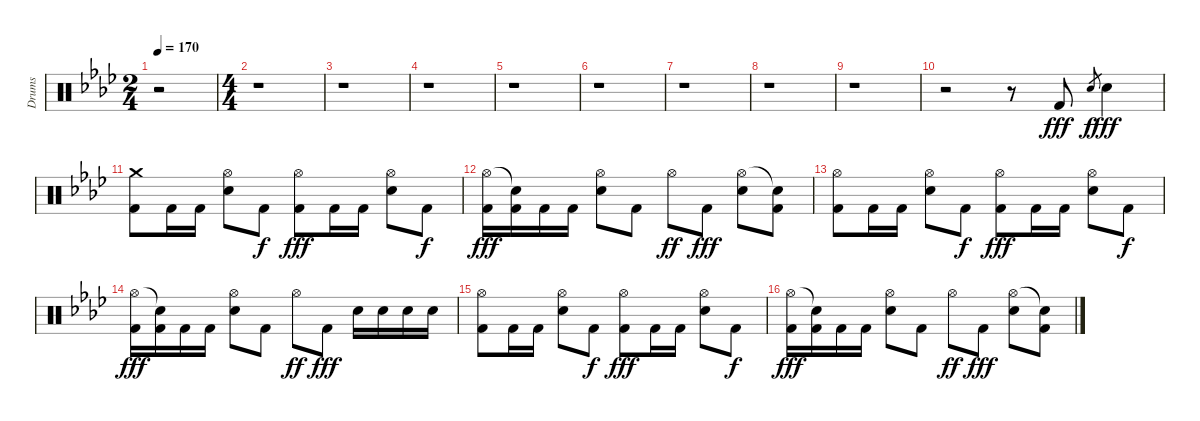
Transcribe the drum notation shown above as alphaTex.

\track ("Drums" "Drums") {instrument percussion}
\staff {score}
\articulation defaults
\ts (2 4)
\tempo 170
\clef neutral
\ks fminor
r.2{dy fff} |
\ts (4 4)
r.1 |
r.1 |
r.1 |
r.1 |
r.1 |
r.1 |
r.1 |
r.1 |
r.2 r.8 "Kick (hit) 2".8 "Snare (hit) 2".8{gr dy f} "Snare (hit) 2".4{dy fff} |
("Crash medium (hit)" "Kick (hit) 2").8 "Kick (hit) 2".16 "Kick (hit) 2".16 ("Hi-Hat (open)" "Snare (hit) 2").8 "Kick (hit) 2".8{dy f} ("Hi-Hat (open)" "Kick (hit) 2").8{dy fff} "Kick (hit) 2".16 "Kick (hit) 2".16 ("Hi-Hat (open)" "Snare (hit) 2").8 "Kick (hit) 2".8{dy f} |
("Hi-Hat (open)" "Kick (hit) 2").16{dy fff} ("Snare (hit)"{t} "Kick (hit) 2").16 "Kick (hit) 2".16 "Kick (hit) 2".16 ("Hi-Hat (open)" "Snare (hit) 2").8 "Kick (hit) 2".8 "Hi-Hat (open)".8{dy ff} "Kick (hit) 2".8{dy fff} ("Hi-Hat (open)" "Snare (hit) 2").8 ("Snare (hit)"{t} "Kick (hit) 2").8 |
("Hi-Hat (open)" "Kick (hit) 2").8 "Kick (hit) 2".16 "Kick (hit) 2".16 ("Hi-Hat (open)" "Snare (hit) 2").8 "Kick (hit) 2".8{dy f} ("Hi-Hat (open)" "Kick (hit) 2").8{dy fff} "Kick (hit) 2".16 "Kick (hit) 2".16 ("Hi-Hat (open)" "Snare (hit) 2").8 "Kick (hit) 2".8{dy f} |
("Hi-Hat (open)" "Kick (hit) 2").16{dy fff} ("Snare (hit)"{t} "Kick (hit) 2").16 "Kick (hit) 2".16 "Kick (hit) 2".16 ("Hi-Hat (open)" "Snare (hit) 2").8 "Kick (hit) 2".8 "Hi-Hat (open)".8{dy ff} "Kick (hit) 2".8{dy fff} "Snare (hit) 2".16 "Snare (hit) 2".16 "Snare (hit) 2".16 "Snare (hit) 2".16 |
("Hi-Hat (open)" "Kick (hit) 2").8 "Kick (hit) 2".16 "Kick (hit) 2".16 ("Hi-Hat (open)" "Snare (hit) 2").8 "Kick (hit) 2".8{dy f} ("Hi-Hat (open)" "Kick (hit) 2").8{dy fff} "Kick (hit) 2".16 "Kick (hit) 2".16 ("Hi-Hat (open)" "Snare (hit) 2").8 "Kick (hit) 2".8{dy f} |
("Hi-Hat (open)" "Kick (hit) 2").16{dy fff} ("Snare (hit)"{t} "Kick (hit) 2").16 "Kick (hit) 2".16 "Kick (hit) 2".16 ("Hi-Hat (open)" "Snare (hit) 2").8 "Kick (hit) 2".8 "Hi-Hat (open)".8{dy ff} "Kick (hit) 2".8{dy fff} ("Hi-Hat (open)" "Snare (hit) 2").8 ("Snare (hit)"{t} "Kick (hit) 2").8
